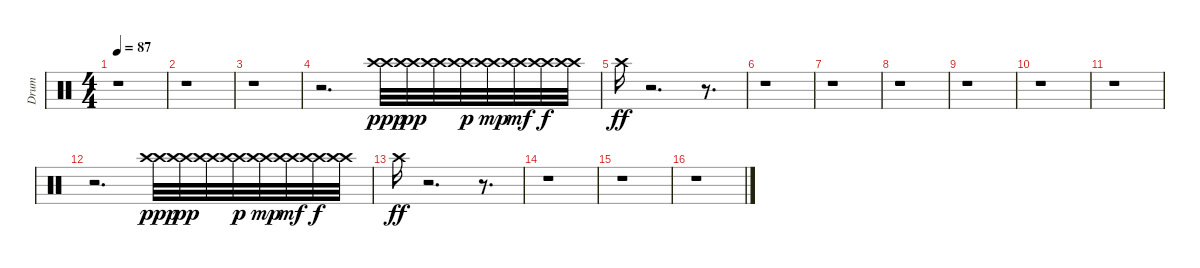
\track ("Drum" "Drum") {instrument percussion}
\staff {score}
\articulation defaults
\ts (4 4)
\tempo 87
\clef neutral
\ks c
r.1{dy f} |
r.1 |
r.1 |
r.2{d} ("Crash high (hit)" "Crash high (hit)").32{dy ppp} ("Crash high (hit)" "Crash high (hit)").32{dy pp} ("Crash high (hit)" "Crash high (hit)").32 ("Crash high (hit)" "Crash high (hit)").32{dy p} ("Crash high (hit)" "Crash high (hit)").32{dy mp} ("Crash high (hit)" "Crash high (hit)").32{dy mf} ("Crash high (hit)" "Crash high (hit)").32{dy f} ("Crash high (hit)" "Crash high (hit)").32 |
"Crash high (hit)".16{dy ff} r.2{d} r.8{d} |
r.1 |
r.1 |
r.1 |
r.1 |
r.1 |
r.1 |
r.2{d} ("Crash high (hit)" "Crash high (hit)").32{dy ppp} ("Crash high (hit)" "Crash high (hit)").32{dy pp} ("Crash high (hit)" "Crash high (hit)").32 ("Crash high (hit)" "Crash high (hit)").32{dy p} ("Crash high (hit)" "Crash high (hit)").32{dy mp} ("Crash high (hit)" "Crash high (hit)").32{dy mf} ("Crash high (hit)" "Crash high (hit)").32{dy f} ("Crash high (hit)" "Crash high (hit)").32 |
"Crash high (hit)".16{dy ff} r.2{d} r.8{d} |
r.1 |
r.1 |
r.1
